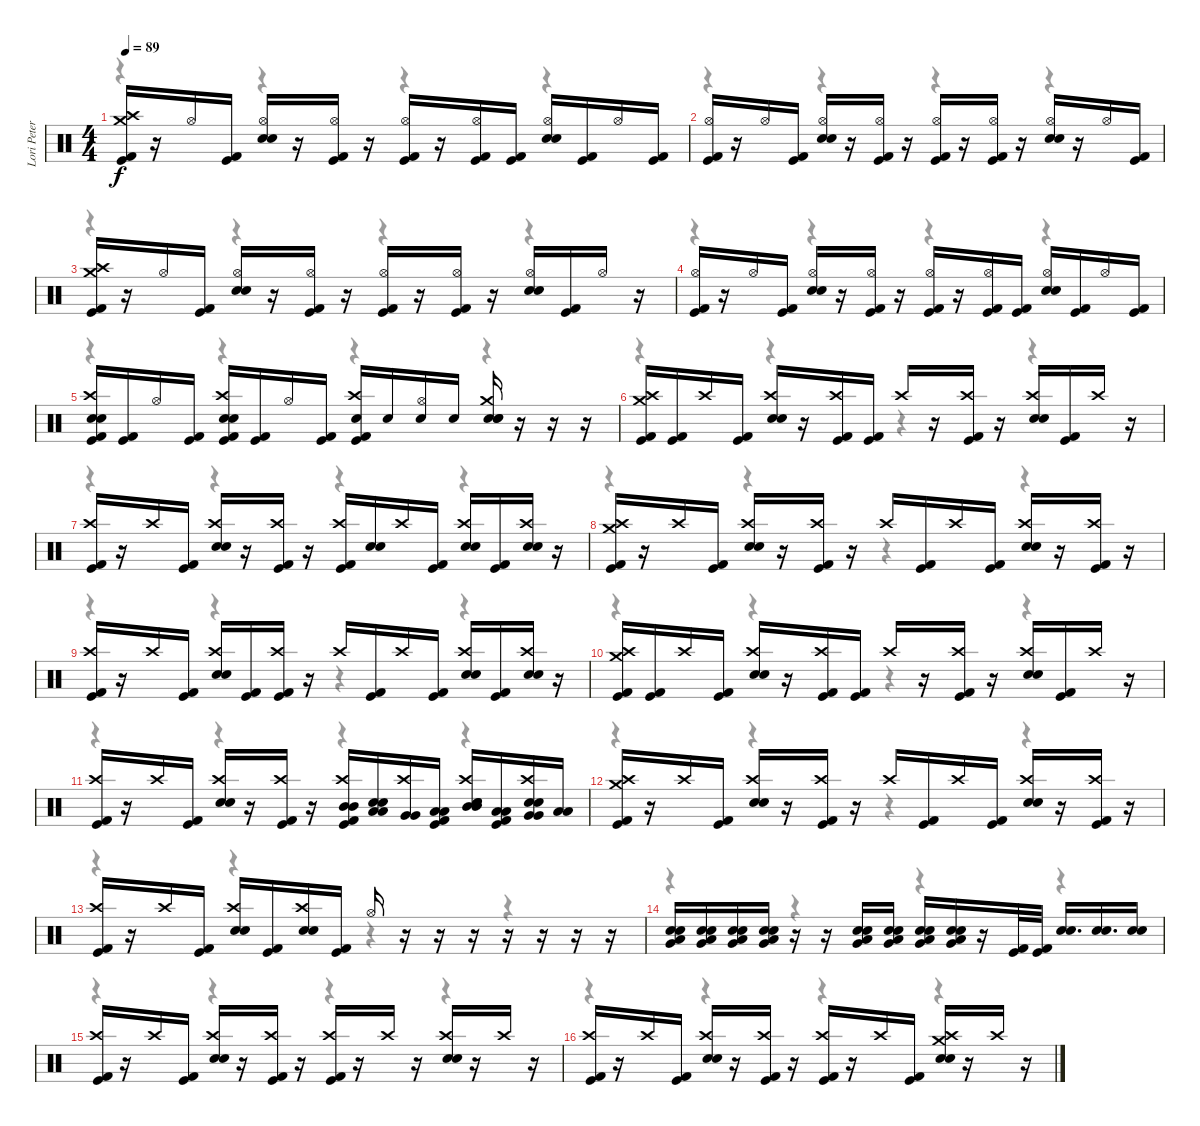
\track ("Lori Peters" "Lori Peter") {instrument percussion}
\staff {score}
\articulation defaults
\voice
\ts (4 4)
\tempo 89
\clef neutral
\ks c
("Crash high (hit)" "Crash medium (hit)" "Kick (hit) 2" "Kick (hit)").16{dy f} r.16 "Hi-Hat (open)".16 ("Kick (hit) 2" "Kick (hit)").16 ("Hi-Hat (open)" "Snare (hit) 2" "Snare (hit) 2").16 r.16 ("Hi-Hat (open)" "Kick (hit) 2" "Kick (hit)").16 r.16 ("Hi-Hat (open)" "Kick (hit) 2" "Kick (hit)").16 r.16 ("Hi-Hat (open)" "Kick (hit) 2" "Kick (hit)").16 ("Kick (hit) 2" "Kick (hit)").16 ("Hi-Hat (open)" "Snare (hit) 2" "Snare (hit) 2").16 ("Kick (hit) 2" "Kick (hit)").16 "Hi-Hat (open)".16 ("Kick (hit) 2" "Kick (hit)").16 |
("Hi-Hat (open)" "Kick (hit) 2" "Kick (hit)").16 r.16 "Hi-Hat (open)".16 ("Kick (hit) 2" "Kick (hit)").16 ("Hi-Hat (open)" "Snare (hit) 2" "Snare (hit) 2").16 r.16 ("Hi-Hat (open)" "Kick (hit) 2" "Kick (hit)").16 r.16 ("Hi-Hat (open)" "Kick (hit) 2" "Kick (hit)").16 r.16 ("Hi-Hat (open)" "Kick (hit) 2" "Kick (hit)").16 r.16 ("Hi-Hat (open)" "Snare (hit) 2" "Snare (hit) 2").16 r.16 "Hi-Hat (open)".16 ("Kick (hit) 2" "Kick (hit)").16 |
("Crash high (hit)" "Crash medium (hit)" "Kick (hit) 2" "Kick (hit)").16 r.16 "Hi-Hat (open)".16 ("Kick (hit) 2" "Kick (hit)").16 ("Hi-Hat (open)" "Snare (hit) 2" "Snare (hit) 2").16 r.16 ("Hi-Hat (open)" "Kick (hit) 2" "Kick (hit)").16 r.16 ("Hi-Hat (open)" "Kick (hit) 2" "Kick (hit)").16 r.16 ("Hi-Hat (open)" "Kick (hit) 2" "Kick (hit)").16 r.16 ("Hi-Hat (open)" "Snare (hit) 2" "Snare (hit) 2").16 ("Kick (hit) 2" "Kick (hit)").16 "Hi-Hat (open)".16 r.16 |
("Hi-Hat (open)" "Kick (hit) 2" "Kick (hit)").16 r.16 "Hi-Hat (open)".16 ("Kick (hit) 2" "Kick (hit)").16 ("Hi-Hat (open)" "Snare (hit) 2" "Snare (hit) 2").16 r.16 ("Hi-Hat (open)" "Kick (hit) 2" "Kick (hit)").16 r.16 ("Hi-Hat (open)" "Kick (hit) 2" "Kick (hit)").16 r.16 ("Hi-Hat (open)" "Kick (hit) 2" "Kick (hit)").16 ("Kick (hit) 2" "Kick (hit)").16 ("Hi-Hat (open)" "Snare (hit) 2" "Snare (hit) 2").16 ("Kick (hit) 2" "Kick (hit)").16 "Hi-Hat (open)".16 ("Kick (hit) 2" "Kick (hit)").16 |
("Crash high (hit)" "Snare (hit) 2" "Snare (hit) 2" "Kick (hit) 2" "Kick (hit)").16 ("Kick (hit) 2" "Kick (hit)").16 "Hi-Hat (open)".16 ("Kick (hit) 2" "Kick (hit)").16 ("Crash high (hit)" "Snare (hit) 2" "Snare (hit) 2" "Kick (hit) 2" "Kick (hit)").16 ("Kick (hit) 2" "Kick (hit)").16 "Hi-Hat (open)".16 ("Kick (hit) 2" "Kick (hit)").16 ("Crash high (hit)" "Snare (hit) 2" "Kick (hit) 2" "Kick (hit)").16 "Snare (hit) 2".16 ("Hi-Hat (open)" "Snare (hit) 2").16 "Snare (hit) 2".16 ("Crash medium (hit)" "Snare (hit) 2" "Snare (hit) 2" "Snare (hit) 2").16 r.16 r.16 r.16 |
("Crash high (hit)" "Crash medium (hit)" "Kick (hit) 2" "Kick (hit)").16 ("Kick (hit) 2" "Kick (hit)").16 "Crash high (hit)".16 ("Kick (hit) 2" "Kick (hit)").16 ("Crash high (hit)" "Snare (hit) 2" "Snare (hit) 2").16 r.16 ("Crash high (hit)" "Kick (hit) 2" "Kick (hit)").16 ("Kick (hit) 2" "Kick (hit)").16 "Crash high (hit)".16 r.16 ("Crash high (hit)" "Kick (hit) 2" "Kick (hit)").16 r.16 ("Crash high (hit)" "Snare (hit) 2" "Snare (hit) 2").16 ("Kick (hit) 2" "Kick (hit)").16 "Crash high (hit)".16 r.16 |
("Crash high (hit)" "Kick (hit) 2" "Kick (hit)").16 r.16 "Crash high (hit)".16 ("Kick (hit) 2" "Kick (hit)").16 ("Crash high (hit)" "Snare (hit) 2" "Snare (hit) 2").16 r.16 ("Crash high (hit)" "Kick (hit) 2" "Kick (hit)").16 r.16 ("Crash high (hit)" "Kick (hit) 2" "Kick (hit)").16 ("Snare (hit) 2" "Snare (hit) 2").16 "Crash high (hit)".16 ("Kick (hit) 2" "Kick (hit)").16 ("Crash high (hit)" "Snare (hit) 2" "Snare (hit) 2").16 ("Kick (hit) 2" "Kick (hit)").16 ("Crash high (hit)" "Snare (hit) 2" "Snare (hit) 2").16 r.16 |
("Crash high (hit)" "Crash medium (hit)" "Kick (hit) 2" "Kick (hit)").16 r.16 "Crash high (hit)".16 ("Kick (hit) 2" "Kick (hit)").16 ("Crash high (hit)" "Snare (hit) 2" "Snare (hit) 2").16 r.16 ("Crash high (hit)" "Kick (hit) 2" "Kick (hit)").16 r.16 "Crash high (hit)".16 ("Kick (hit) 2" "Kick (hit)").16 "Crash high (hit)".16 ("Kick (hit) 2" "Kick (hit)").16 ("Crash high (hit)" "Snare (hit) 2" "Snare (hit) 2").16 r.16 ("Crash high (hit)" "Kick (hit) 2" "Kick (hit)").16 r.16 |
("Crash high (hit)" "Kick (hit) 2" "Kick (hit)").16 r.16 "Crash high (hit)".16 ("Kick (hit) 2" "Kick (hit)").16 ("Crash high (hit)" "Snare (hit) 2" "Snare (hit) 2").16 ("Kick (hit) 2" "Kick (hit)").16 ("Crash high (hit)" "Kick (hit) 2" "Kick (hit)").16 r.16 "Crash high (hit)".16 ("Kick (hit) 2" "Kick (hit)").16 "Crash high (hit)".16 ("Kick (hit) 2" "Kick (hit)").16 ("Crash high (hit)" "Snare (hit) 2" "Snare (hit) 2").16 ("Kick (hit) 2" "Kick (hit)").16 ("Crash high (hit)" "Snare (hit) 2" "Snare (hit) 2").16 r.16 |
("Crash high (hit)" "Crash medium (hit)" "Kick (hit) 2" "Kick (hit)").16 ("Kick (hit) 2" "Kick (hit)").16 "Crash high (hit)".16 ("Kick (hit) 2" "Kick (hit)").16 ("Crash high (hit)" "Snare (hit) 2" "Snare (hit) 2").16 r.16 ("Crash high (hit)" "Kick (hit) 2" "Kick (hit)").16 ("Kick (hit) 2" "Kick (hit)").16 "Crash high (hit)".16 r.16 ("Crash high (hit)" "Kick (hit) 2" "Kick (hit)").16 r.16 ("Crash high (hit)" "Snare (hit) 2" "Snare (hit) 2").16 ("Kick (hit) 2" "Kick (hit)").16 "Crash high (hit)".16 r.16 |
("Crash high (hit)" "Kick (hit) 2" "Kick (hit)").16 r.16 "Crash high (hit)".16 ("Kick (hit) 2" "Kick (hit)").16 ("Crash high (hit)" "Snare (hit) 2" "Snare (hit) 2").16 r.16 ("Crash high (hit)" "Kick (hit) 2" "Kick (hit)").16 r.16 ("Crash high (hit)" "Mid Tom (hit)" "Mid Tom (hit)" "Kick (hit) 2" "Kick (hit)").16 ("Low Tom (hit)" "Low Tom (hit)" "Snare (hit) 2" "Snare (hit) 2").16 ("Crash high (hit)" "Very Low Tom (hit)" "Very Low Tom (hit)").16 ("Low Floor Tom (hit)" "Low Floor Tom (hit)" "Kick (hit) 2" "Kick (hit)").16 ("Crash high (hit)" "Mid Tom (hit)" "Mid Tom (hit)" "Snare (hit) 2" "Snare (hit) 2").16 ("Low Tom (hit)" "Low Tom (hit)" "Kick (hit) 2" "Kick (hit)").16 ("Crash high (hit)" "Very Low Tom (hit)" "Very Low Tom (hit)" "Snare (hit) 2" "Snare (hit) 2").16 ("Low Floor Tom (hit)" "Low Floor Tom (hit)").16 |
("Crash high (hit)" "Crash medium (hit)" "Kick (hit) 2" "Kick (hit)").16 r.16 "Crash high (hit)".16 ("Kick (hit) 2" "Kick (hit)").16 ("Crash high (hit)" "Snare (hit) 2" "Snare (hit) 2").16 r.16 ("Crash high (hit)" "Kick (hit) 2" "Kick (hit)").16 r.16 "Crash high (hit)".16 ("Kick (hit) 2" "Kick (hit)").16 "Crash high (hit)".16 ("Kick (hit) 2" "Kick (hit)").16 ("Crash high (hit)" "Snare (hit) 2" "Snare (hit) 2").16 r.16 ("Crash high (hit)" "Kick (hit) 2" "Kick (hit)").16 r.16 |
("Crash high (hit)" "Kick (hit) 2" "Kick (hit)").16 r.16 "Crash high (hit)".16 ("Kick (hit) 2" "Kick (hit)").16 ("Crash high (hit)" "Snare (hit) 2" "Snare (hit) 2").16 ("Kick (hit) 2" "Kick (hit)").16 ("Crash high (hit)" "Snare (hit) 2" "Snare (hit) 2").16 ("Kick (hit) 2" "Kick (hit)").16 "Hi-Hat (open)".16 r.16 r.16 r.16 r.16 r.16 r.16 r.16 |
("Snare (hit) 2" "Snare (hit) 2" "Very Low Tom (hit)" "Low Floor Tom (hit)").16 ("Snare (hit) 2" "Snare (hit) 2" "Very Low Tom (hit)" "Low Floor Tom (hit)").16 ("Snare (hit) 2" "Snare (hit) 2" "Very Low Tom (hit)" "Low Floor Tom (hit)").16 ("Snare (hit) 2" "Snare (hit) 2" "Very Low Tom (hit)" "Low Floor Tom (hit)").16 r.16 r.16 ("Snare (hit) 2" "Snare (hit) 2" "Very Low Tom (hit)" "Low Floor Tom (hit)").16 ("Snare (hit) 2" "Snare (hit) 2" "Very Low Tom (hit)" "Low Floor Tom (hit)").16 ("Snare (hit) 2" "Snare (hit) 2" "Very Low Tom (hit)" "Low Floor Tom (hit)").16 ("Snare (hit) 2" "Snare (hit) 2" "Very Low Tom (hit)" "Low Floor Tom (hit)").16 r.16 ("Kick (hit) 2" "Kick (hit)").32 ("Kick (hit) 2" "Kick (hit)").32 ("Snare (hit) 2" "Snare (hit) 2").16{d} ("Snare (hit) 2" "Snare (hit) 2").16{d} ("Snare (hit) 2" "Snare (hit) 2").16 |
("Crash high (hit)" "Kick (hit) 2" "Kick (hit)").16 r.16 "Crash high (hit)".16 ("Kick (hit) 2" "Kick (hit)").16 ("Crash high (hit)" "Snare (hit) 2" "Snare (hit) 2").16 r.16 ("Crash high (hit)" "Kick (hit) 2" "Kick (hit)").16 r.16 ("Crash high (hit)" "Kick (hit) 2" "Kick (hit)").16 r.16 "Crash high (hit)".16 r.16 ("Crash high (hit)" "Snare (hit) 2" "Snare (hit) 2").16 r.16 "Crash high (hit)".16 r.16 |
("Crash high (hit)" "Kick (hit) 2" "Kick (hit)").16 r.16 "Crash high (hit)".16 ("Kick (hit) 2" "Kick (hit)").16 ("Crash high (hit)" "Snare (hit) 2" "Snare (hit) 2").16 r.16 ("Crash high (hit)" "Kick (hit) 2" "Kick (hit)").16 r.16 ("Crash high (hit)" "Kick (hit) 2" "Kick (hit)").16 r.16 "Crash high (hit)".16 ("Kick (hit) 2" "Kick (hit)").16 ("Crash high (hit)" "Crash medium (hit)" "Snare (hit) 2" "Snare (hit) 2").16 r.16 "Crash high (hit)".16 r.16
\voice
\clef neutral
\ottava regular
\simile none
\ks c
r.4{dy f} r.4 r.4 r.4 |
r.4 r.4 r.4 r.4 |
r.4 r.4 r.4 r.4 |
r.4 r.4 r.4 r.4 |
r.4 r.4 r.4 r.4 |
r.4 r.4 r.4 r.4 |
r.4 r.4 r.4 r.4 |
r.4 r.4 r.4 r.4 |
r.4 r.4 r.4 r.4 |
r.4 r.4 r.4 r.4 |
r.4 r.4 r.4 r.4 |
r.4 r.4 r.4 r.4 |
r.4 r.4 r.4 r.4 |
r.4 r.4 r.4 r.4 |
r.4 r.4 r.4 r.4 |
r.4 r.4 r.4 r.4
